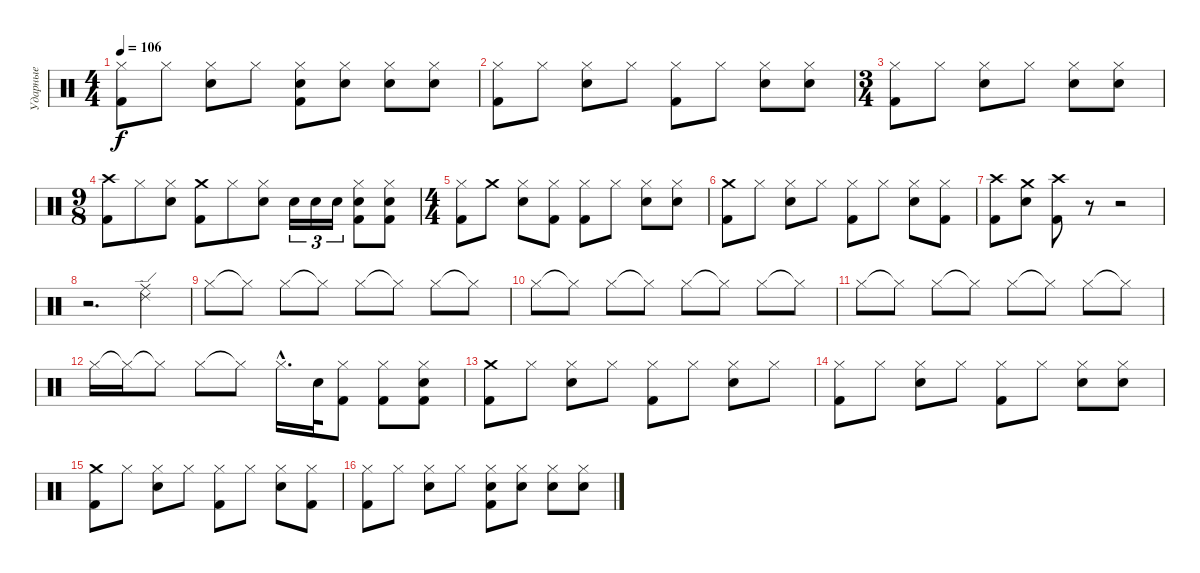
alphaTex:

\track ("Ударные" "Ударные") {instrument percussion}
\staff {score}
\articulation defaults
\ts (4 4)
\tempo 106
\clef neutral
\ks c
("Hi-Hat (closed)" "Kick (hit) 2").8{dy f} "Hi-Hat (closed)".8 ("Hi-Hat (closed)" "Snare (hit) 2").8 "Hi-Hat (closed)".8 ("Hi-Hat (closed)" "Snare (hit) 2" "Kick (hit) 2").8 ("Hi-Hat (closed)" "Snare (hit) 2").8 ("Hi-Hat (closed)" "Snare (hit) 2").8 ("Hi-Hat (closed)" "Snare (hit) 2").8 |
("Hi-Hat (closed)" "Kick (hit) 2").8 "Hi-Hat (closed)".8 ("Hi-Hat (closed)" "Snare (hit) 2").8 "Hi-Hat (closed)".8 ("Hi-Hat (closed)" "Kick (hit) 2").8 "Hi-Hat (closed)".8 ("Hi-Hat (closed)" "Snare (hit) 2").8 ("Hi-Hat (closed)" "Snare (hit) 2").8 |
\ts (3 4)
("Hi-Hat (closed)" "Kick (hit) 2").8 "Hi-Hat (closed)".8 ("Hi-Hat (closed)" "Snare (hit) 2").8 "Hi-Hat (closed)".8 ("Hi-Hat (closed)" "Snare (hit) 2").8 ("Hi-Hat (closed)" "Snare (hit) 2").8 |
\ts (9 8)
("Crash high (hit)" "Kick (hit) 2").8 "Hi-Hat (closed)".8 ("Hi-Hat (closed)" "Snare (hit) 2").8 ("Crash medium (hit)" "Kick (hit) 2").8 "Hi-Hat (closed)".8 ("Hi-Hat (closed)" "Snare (hit) 2").8 "Snare (hit) 2".16{tu (3 2)} "Snare (hit) 2".16{tu (3 2)} "Snare (hit) 2".16{tu (3 2)} ("Hi-Hat (closed)" "Snare (hit) 2" "Kick (hit) 2").8 ("Hi-Hat (closed)" "Snare (hit) 2" "Kick (hit) 2").8 |
\ts (4 4)
("Hi-Hat (closed)" "Kick (hit) 2").8 "Crash medium (hit)".8 ("Hi-Hat (closed)" "Snare (hit) 2").8 ("Hi-Hat (closed)" "Kick (hit) 2").8 ("Hi-Hat (closed)" "Kick (hit) 2").8 "Hi-Hat (closed)".8 ("Hi-Hat (closed)" "Snare (hit) 2").8 ("Hi-Hat (closed)" "Snare (hit) 2").8 |
("Crash medium (hit)" "Kick (hit) 2").8 "Hi-Hat (closed)".8 ("Hi-Hat (closed)" "Snare (hit) 2").8 "Hi-Hat (closed)".8 ("Hi-Hat (closed)" "Kick (hit) 2").8 "Hi-Hat (closed)".8 ("Hi-Hat (closed)" "Snare (hit) 2").8 ("Hi-Hat (closed)" "Kick (hit) 2").8 |
("Crash high (hit)" "Kick (hit) 2").8 ("Crash medium (hit)" "Snare (hit) 2").8 ("Crash high (hit)" "Kick (hit) 2").8 r.8 r.2 |
r.2{d} ("Ride (middle)" "Ride (edge) 2").4 |
"Hi-Hat (closed)".8 "Hi-Hat (closed)"{t}.8 "Hi-Hat (closed)".8 "Hi-Hat (closed)"{t}.8 "Hi-Hat (closed)".8 "Hi-Hat (closed)"{t}.8 "Hi-Hat (closed)".8 "Hi-Hat (closed)"{t}.8 |
"Hi-Hat (closed)".8 "Hi-Hat (closed)"{t}.8 "Hi-Hat (closed)".8 "Hi-Hat (closed)"{t}.8 "Hi-Hat (closed)".8 "Hi-Hat (closed)"{t}.8 "Hi-Hat (closed)".8 "Hi-Hat (closed)"{t}.8 |
"Hi-Hat (closed)".8 "Hi-Hat (closed)"{t}.8 "Hi-Hat (closed)".8 "Hi-Hat (closed)"{t}.8 "Hi-Hat (closed)".8 "Hi-Hat (closed)"{t}.8 "Hi-Hat (closed)".8 "Hi-Hat (closed)"{t}.8 |
"Hi-Hat (closed)".16 "Hi-Hat (closed)"{t}.16 "Hi-Hat (closed)"{t}.8 "Hi-Hat (closed)".8 "Hi-Hat (closed)"{t}.8 "Hi-Hat (closed)"{hac}.16{d} "Snare (hit) 2".32 ("Hi-Hat (closed)" "Kick (hit) 2").8 ("Hi-Hat (closed)" "Kick (hit) 2").8 ("Hi-Hat (closed)" "Snare (hit) 2" "Kick (hit) 2").8 |
("Crash medium (hit)" "Kick (hit) 2").8 "Hi-Hat (closed)".8 ("Hi-Hat (closed)" "Snare (hit) 2").8 "Hi-Hat (closed)".8 ("Hi-Hat (closed)" "Kick (hit) 2").8 "Hi-Hat (closed)".8 ("Hi-Hat (closed)" "Snare (hit) 2").8 "Hi-Hat (closed)".8 |
("Hi-Hat (closed)" "Kick (hit) 2").8 "Hi-Hat (closed)".8 ("Hi-Hat (closed)" "Snare (hit) 2").8 "Hi-Hat (closed)".8 ("Hi-Hat (closed)" "Kick (hit) 2").8 "Hi-Hat (closed)".8 ("Hi-Hat (closed)" "Snare (hit) 2").8 ("Hi-Hat (closed)" "Snare (hit) 2").8 |
("Crash medium (hit)" "Kick (hit) 2").8 "Hi-Hat (closed)".8 ("Hi-Hat (closed)" "Snare (hit) 2").8 "Hi-Hat (closed)".8 ("Hi-Hat (closed)" "Kick (hit) 2").8 "Hi-Hat (closed)".8 ("Hi-Hat (closed)" "Snare (hit) 2").8 ("Hi-Hat (closed)" "Kick (hit) 2").8 |
("Hi-Hat (closed)" "Kick (hit) 2").8 "Hi-Hat (closed)".8 ("Hi-Hat (closed)" "Snare (hit) 2").8 "Hi-Hat (closed)".8 ("Hi-Hat (closed)" "Snare (hit) 2" "Kick (hit) 2").8 ("Hi-Hat (closed)" "Snare (hit) 2").8 ("Hi-Hat (closed)" "Snare (hit) 2").8 ("Hi-Hat (closed)" "Snare (hit) 2").8
